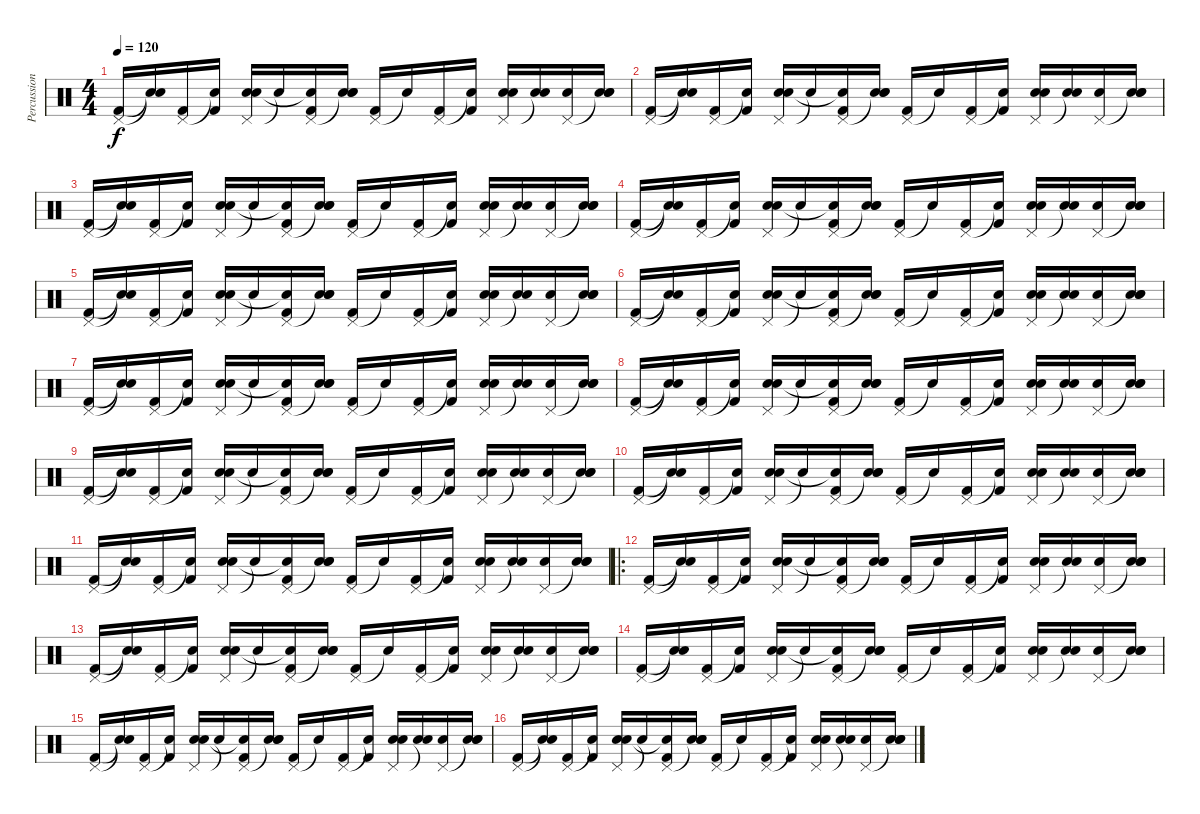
\track ("Percussions" "Percussion") {instrument percussion}
\staff {score}
\articulation defaults
\ts (4 4)
\tempo 120
\clef neutral
\ks c
("Pedal Hi-Hat (hit)" "Kick (hit) 2").16{dy f} ("Snare (hit)"{t} "Snare (hit)"{t}).16 ("Pedal Hi-Hat (hit)" "Kick (hit) 2").16 ("Snare (hit)"{t} "Kick (hit) 2").16 ("Pedal Hi-Hat (hit)" "Electric Snare (hit)" "Snare (hit) 2").16 "Snare (hit)"{t}.16 ("Pedal Hi-Hat (hit)" "Snare (hit)"{t} "Kick (hit) 2").16 ("Snare (hit)"{t} "Electric Snare (hit)" "Snare (hit) 2").16 ("Pedal Hi-Hat (hit)" "Kick (hit) 2").16 "Snare (hit)"{t}.16 ("Pedal Hi-Hat (hit)" "Kick (hit) 2").16 ("Snare (hit)"{t} "Kick (hit) 2").16 ("Pedal Hi-Hat (hit)" "Electric Snare (hit)" "Snare (hit) 2").16 ("Snare (hit)"{t} "Snare (hit) 2").16 ("Pedal Hi-Hat (hit)" "Snare (hit) 2").16 ("Snare (hit)"{t} "Electric Snare (hit)" "Snare (hit) 2").16 |
("Pedal Hi-Hat (hit)" "Kick (hit) 2").16 ("Snare (hit)"{t} "Snare (hit)"{t}).16 ("Pedal Hi-Hat (hit)" "Kick (hit) 2").16 ("Snare (hit)"{t} "Kick (hit) 2").16 ("Pedal Hi-Hat (hit)" "Electric Snare (hit)" "Snare (hit) 2").16 "Snare (hit)"{t}.16 ("Pedal Hi-Hat (hit)" "Snare (hit)"{t} "Kick (hit) 2").16 ("Snare (hit)"{t} "Electric Snare (hit)" "Snare (hit) 2").16 ("Pedal Hi-Hat (hit)" "Kick (hit) 2").16 "Snare (hit)"{t}.16 ("Pedal Hi-Hat (hit)" "Kick (hit) 2").16 ("Snare (hit)"{t} "Kick (hit) 2").16 ("Pedal Hi-Hat (hit)" "Electric Snare (hit)" "Snare (hit) 2").16 ("Snare (hit)"{t} "Snare (hit) 2").16 ("Pedal Hi-Hat (hit)" "Snare (hit) 2").16 ("Snare (hit)"{t} "Electric Snare (hit)" "Snare (hit) 2").16 |
("Pedal Hi-Hat (hit)" "Kick (hit) 2").16 ("Snare (hit)"{t} "Snare (hit)"{t}).16 ("Pedal Hi-Hat (hit)" "Kick (hit) 2").16 ("Snare (hit)"{t} "Kick (hit) 2").16 ("Pedal Hi-Hat (hit)" "Electric Snare (hit)" "Snare (hit) 2").16 "Snare (hit)"{t}.16 ("Pedal Hi-Hat (hit)" "Snare (hit)"{t} "Kick (hit) 2").16 ("Snare (hit)"{t} "Electric Snare (hit)" "Snare (hit) 2").16 ("Pedal Hi-Hat (hit)" "Kick (hit) 2").16 "Snare (hit)"{t}.16 ("Pedal Hi-Hat (hit)" "Kick (hit) 2").16 ("Snare (hit)"{t} "Kick (hit) 2").16 ("Pedal Hi-Hat (hit)" "Electric Snare (hit)" "Snare (hit) 2").16 ("Snare (hit)"{t} "Snare (hit) 2").16 ("Pedal Hi-Hat (hit)" "Snare (hit) 2").16 ("Snare (hit)"{t} "Electric Snare (hit)" "Snare (hit) 2").16 |
("Pedal Hi-Hat (hit)" "Kick (hit) 2").16 ("Snare (hit)"{t} "Snare (hit)"{t}).16 ("Pedal Hi-Hat (hit)" "Kick (hit) 2").16 ("Snare (hit)"{t} "Kick (hit) 2").16 ("Pedal Hi-Hat (hit)" "Electric Snare (hit)" "Snare (hit) 2").16 "Snare (hit)"{t}.16 ("Pedal Hi-Hat (hit)" "Snare (hit)"{t} "Kick (hit) 2").16 ("Snare (hit)"{t} "Electric Snare (hit)" "Snare (hit) 2").16 ("Pedal Hi-Hat (hit)" "Kick (hit) 2").16 "Snare (hit)"{t}.16 ("Pedal Hi-Hat (hit)" "Kick (hit) 2").16 ("Snare (hit)"{t} "Kick (hit) 2").16 ("Pedal Hi-Hat (hit)" "Electric Snare (hit)" "Snare (hit) 2").16 ("Snare (hit)"{t} "Snare (hit) 2").16 ("Pedal Hi-Hat (hit)" "Snare (hit) 2").16 ("Snare (hit)"{t} "Electric Snare (hit)" "Snare (hit) 2").16 |
("Pedal Hi-Hat (hit)" "Kick (hit) 2").16 ("Snare (hit)"{t} "Snare (hit)"{t}).16 ("Pedal Hi-Hat (hit)" "Kick (hit) 2").16 ("Snare (hit)"{t} "Kick (hit) 2").16 ("Pedal Hi-Hat (hit)" "Electric Snare (hit)" "Snare (hit) 2").16 "Snare (hit)"{t}.16 ("Pedal Hi-Hat (hit)" "Snare (hit)"{t} "Kick (hit) 2").16 ("Snare (hit)"{t} "Electric Snare (hit)" "Snare (hit) 2").16 ("Pedal Hi-Hat (hit)" "Kick (hit) 2").16 "Snare (hit)"{t}.16 ("Pedal Hi-Hat (hit)" "Kick (hit) 2").16 ("Snare (hit)"{t} "Kick (hit) 2").16 ("Pedal Hi-Hat (hit)" "Electric Snare (hit)" "Snare (hit) 2").16 ("Snare (hit)"{t} "Snare (hit) 2").16 ("Pedal Hi-Hat (hit)" "Snare (hit) 2").16 ("Snare (hit)"{t} "Electric Snare (hit)" "Snare (hit) 2").16 |
("Pedal Hi-Hat (hit)" "Kick (hit) 2").16 ("Snare (hit)"{t} "Snare (hit)"{t}).16 ("Pedal Hi-Hat (hit)" "Kick (hit) 2").16 ("Snare (hit)"{t} "Kick (hit) 2").16 ("Pedal Hi-Hat (hit)" "Electric Snare (hit)" "Snare (hit) 2").16 "Snare (hit)"{t}.16 ("Pedal Hi-Hat (hit)" "Snare (hit)"{t} "Kick (hit) 2").16 ("Snare (hit)"{t} "Electric Snare (hit)" "Snare (hit) 2").16 ("Pedal Hi-Hat (hit)" "Kick (hit) 2").16 "Snare (hit)"{t}.16 ("Pedal Hi-Hat (hit)" "Kick (hit) 2").16 ("Snare (hit)"{t} "Kick (hit) 2").16 ("Pedal Hi-Hat (hit)" "Electric Snare (hit)" "Snare (hit) 2").16 ("Snare (hit)"{t} "Snare (hit) 2").16 ("Pedal Hi-Hat (hit)" "Snare (hit) 2").16 ("Snare (hit)"{t} "Electric Snare (hit)" "Snare (hit) 2").16 |
("Pedal Hi-Hat (hit)" "Kick (hit) 2").16 ("Snare (hit)"{t} "Snare (hit)"{t}).16 ("Pedal Hi-Hat (hit)" "Kick (hit) 2").16 ("Snare (hit)"{t} "Kick (hit) 2").16 ("Pedal Hi-Hat (hit)" "Electric Snare (hit)" "Snare (hit) 2").16 "Snare (hit)"{t}.16 ("Pedal Hi-Hat (hit)" "Snare (hit)"{t} "Kick (hit) 2").16 ("Snare (hit)"{t} "Electric Snare (hit)" "Snare (hit) 2").16 ("Pedal Hi-Hat (hit)" "Kick (hit) 2").16 "Snare (hit)"{t}.16 ("Pedal Hi-Hat (hit)" "Kick (hit) 2").16 ("Snare (hit)"{t} "Kick (hit) 2").16 ("Pedal Hi-Hat (hit)" "Electric Snare (hit)" "Snare (hit) 2").16 ("Snare (hit)"{t} "Snare (hit) 2").16 ("Pedal Hi-Hat (hit)" "Snare (hit) 2").16 ("Snare (hit)"{t} "Electric Snare (hit)" "Snare (hit) 2").16 |
("Pedal Hi-Hat (hit)" "Kick (hit) 2").16 ("Snare (hit)"{t} "Snare (hit)"{t}).16 ("Pedal Hi-Hat (hit)" "Kick (hit) 2").16 ("Snare (hit)"{t} "Kick (hit) 2").16 ("Pedal Hi-Hat (hit)" "Electric Snare (hit)" "Snare (hit) 2").16 "Snare (hit)"{t}.16 ("Pedal Hi-Hat (hit)" "Snare (hit)"{t} "Kick (hit) 2").16 ("Snare (hit)"{t} "Electric Snare (hit)" "Snare (hit) 2").16 ("Pedal Hi-Hat (hit)" "Kick (hit) 2").16 "Snare (hit)"{t}.16 ("Pedal Hi-Hat (hit)" "Kick (hit) 2").16 ("Snare (hit)"{t} "Kick (hit) 2").16 ("Pedal Hi-Hat (hit)" "Electric Snare (hit)" "Snare (hit) 2").16 ("Snare (hit)"{t} "Snare (hit) 2").16 ("Pedal Hi-Hat (hit)" "Snare (hit) 2").16 ("Snare (hit)"{t} "Electric Snare (hit)" "Snare (hit) 2").16 |
("Pedal Hi-Hat (hit)" "Kick (hit) 2").16 ("Snare (hit)"{t} "Snare (hit)"{t}).16 ("Pedal Hi-Hat (hit)" "Kick (hit) 2").16 ("Snare (hit)"{t} "Kick (hit) 2").16 ("Pedal Hi-Hat (hit)" "Electric Snare (hit)" "Snare (hit) 2").16 "Snare (hit)"{t}.16 ("Pedal Hi-Hat (hit)" "Snare (hit)"{t} "Kick (hit) 2").16 ("Snare (hit)"{t} "Electric Snare (hit)" "Snare (hit) 2").16 ("Pedal Hi-Hat (hit)" "Kick (hit) 2").16 "Snare (hit)"{t}.16 ("Pedal Hi-Hat (hit)" "Kick (hit) 2").16 ("Snare (hit)"{t} "Kick (hit) 2").16 ("Pedal Hi-Hat (hit)" "Electric Snare (hit)" "Snare (hit) 2").16 ("Snare (hit)"{t} "Snare (hit) 2").16 ("Pedal Hi-Hat (hit)" "Snare (hit) 2").16 ("Snare (hit)"{t} "Electric Snare (hit)" "Snare (hit) 2").16 |
("Pedal Hi-Hat (hit)" "Kick (hit) 2").16 ("Snare (hit)"{t} "Snare (hit)"{t}).16 ("Pedal Hi-Hat (hit)" "Kick (hit) 2").16 ("Snare (hit)"{t} "Kick (hit) 2").16 ("Pedal Hi-Hat (hit)" "Electric Snare (hit)" "Snare (hit) 2").16 "Snare (hit)"{t}.16 ("Pedal Hi-Hat (hit)" "Snare (hit)"{t} "Kick (hit) 2").16 ("Snare (hit)"{t} "Electric Snare (hit)" "Snare (hit) 2").16 ("Pedal Hi-Hat (hit)" "Kick (hit) 2").16 "Snare (hit)"{t}.16 ("Pedal Hi-Hat (hit)" "Kick (hit) 2").16 ("Snare (hit)"{t} "Kick (hit) 2").16 ("Pedal Hi-Hat (hit)" "Electric Snare (hit)" "Snare (hit) 2").16 ("Snare (hit)"{t} "Snare (hit) 2").16 ("Pedal Hi-Hat (hit)" "Snare (hit) 2").16 ("Snare (hit)"{t} "Electric Snare (hit)" "Snare (hit) 2").16 |
("Pedal Hi-Hat (hit)" "Kick (hit) 2").16 ("Snare (hit)"{t} "Snare (hit)"{t}).16 ("Pedal Hi-Hat (hit)" "Kick (hit) 2").16 ("Snare (hit)"{t} "Kick (hit) 2").16 ("Pedal Hi-Hat (hit)" "Electric Snare (hit)" "Snare (hit) 2").16 "Snare (hit)"{t}.16 ("Pedal Hi-Hat (hit)" "Snare (hit)"{t} "Kick (hit) 2").16 ("Snare (hit)"{t} "Electric Snare (hit)" "Snare (hit) 2").16 ("Pedal Hi-Hat (hit)" "Kick (hit) 2").16 "Snare (hit)"{t}.16 ("Pedal Hi-Hat (hit)" "Kick (hit) 2").16 ("Snare (hit)"{t} "Kick (hit) 2").16 ("Pedal Hi-Hat (hit)" "Electric Snare (hit)" "Snare (hit) 2").16 ("Snare (hit)"{t} "Snare (hit) 2").16 ("Pedal Hi-Hat (hit)" "Snare (hit) 2").16 ("Snare (hit)"{t} "Electric Snare (hit)" "Snare (hit) 2").16 |
\ro
("Pedal Hi-Hat (hit)" "Kick (hit) 2").16 ("Snare (hit)"{t} "Snare (hit)"{t}).16 ("Pedal Hi-Hat (hit)" "Kick (hit) 2").16 ("Snare (hit)"{t} "Kick (hit) 2").16 ("Pedal Hi-Hat (hit)" "Electric Snare (hit)" "Snare (hit) 2").16 "Snare (hit)"{t}.16 ("Pedal Hi-Hat (hit)" "Snare (hit)"{t} "Kick (hit) 2").16 ("Snare (hit)"{t} "Electric Snare (hit)" "Snare (hit) 2").16 ("Pedal Hi-Hat (hit)" "Kick (hit) 2").16 "Snare (hit)"{t}.16 ("Pedal Hi-Hat (hit)" "Kick (hit) 2").16 ("Snare (hit)"{t} "Kick (hit) 2").16 ("Pedal Hi-Hat (hit)" "Electric Snare (hit)" "Snare (hit) 2").16 ("Snare (hit)"{t} "Snare (hit) 2").16 ("Pedal Hi-Hat (hit)" "Snare (hit) 2").16 ("Snare (hit)"{t} "Electric Snare (hit)" "Snare (hit) 2").16 |
("Pedal Hi-Hat (hit)" "Kick (hit) 2").16 ("Snare (hit)"{t} "Snare (hit)"{t}).16 ("Pedal Hi-Hat (hit)" "Kick (hit) 2").16 ("Snare (hit)"{t} "Kick (hit) 2").16 ("Pedal Hi-Hat (hit)" "Electric Snare (hit)" "Snare (hit) 2").16 "Snare (hit)"{t}.16 ("Pedal Hi-Hat (hit)" "Snare (hit)"{t} "Kick (hit) 2").16 ("Snare (hit)"{t} "Electric Snare (hit)" "Snare (hit) 2").16 ("Pedal Hi-Hat (hit)" "Kick (hit) 2").16 "Snare (hit)"{t}.16 ("Pedal Hi-Hat (hit)" "Kick (hit) 2").16 ("Snare (hit)"{t} "Kick (hit) 2").16 ("Pedal Hi-Hat (hit)" "Electric Snare (hit)" "Snare (hit) 2").16 ("Snare (hit)"{t} "Snare (hit) 2").16 ("Pedal Hi-Hat (hit)" "Snare (hit) 2").16 ("Snare (hit)"{t} "Electric Snare (hit)" "Snare (hit) 2").16 |
("Pedal Hi-Hat (hit)" "Kick (hit) 2").16 ("Snare (hit)"{t} "Snare (hit)"{t}).16 ("Pedal Hi-Hat (hit)" "Kick (hit) 2").16 ("Snare (hit)"{t} "Kick (hit) 2").16 ("Pedal Hi-Hat (hit)" "Electric Snare (hit)" "Snare (hit) 2").16 "Snare (hit)"{t}.16 ("Pedal Hi-Hat (hit)" "Snare (hit)"{t} "Kick (hit) 2").16 ("Snare (hit)"{t} "Electric Snare (hit)" "Snare (hit) 2").16 ("Pedal Hi-Hat (hit)" "Kick (hit) 2").16 "Snare (hit)"{t}.16 ("Pedal Hi-Hat (hit)" "Kick (hit) 2").16 ("Snare (hit)"{t} "Kick (hit) 2").16 ("Pedal Hi-Hat (hit)" "Electric Snare (hit)" "Snare (hit) 2").16 ("Snare (hit)"{t} "Snare (hit) 2").16 ("Pedal Hi-Hat (hit)" "Snare (hit) 2").16 ("Snare (hit)"{t} "Electric Snare (hit)" "Snare (hit) 2").16 |
("Pedal Hi-Hat (hit)" "Kick (hit) 2").16 ("Snare (hit)"{t} "Snare (hit)"{t}).16 ("Pedal Hi-Hat (hit)" "Kick (hit) 2").16 ("Snare (hit)"{t} "Kick (hit) 2").16 ("Pedal Hi-Hat (hit)" "Electric Snare (hit)" "Snare (hit) 2").16 "Snare (hit)"{t}.16 ("Pedal Hi-Hat (hit)" "Snare (hit)"{t} "Kick (hit) 2").16 ("Snare (hit)"{t} "Electric Snare (hit)" "Snare (hit) 2").16 ("Pedal Hi-Hat (hit)" "Kick (hit) 2").16 "Snare (hit)"{t}.16 ("Pedal Hi-Hat (hit)" "Kick (hit) 2").16 ("Snare (hit)"{t} "Kick (hit) 2").16 ("Pedal Hi-Hat (hit)" "Electric Snare (hit)" "Snare (hit) 2").16 ("Snare (hit)"{t} "Snare (hit) 2").16 ("Pedal Hi-Hat (hit)" "Snare (hit) 2").16 ("Snare (hit)"{t} "Electric Snare (hit)" "Snare (hit) 2").16 |
("Pedal Hi-Hat (hit)" "Kick (hit) 2").16 ("Snare (hit)"{t} "Snare (hit)"{t}).16 ("Pedal Hi-Hat (hit)" "Kick (hit) 2").16 ("Snare (hit)"{t} "Kick (hit) 2").16 ("Pedal Hi-Hat (hit)" "Electric Snare (hit)" "Snare (hit) 2").16 "Snare (hit)"{t}.16 ("Pedal Hi-Hat (hit)" "Snare (hit)"{t} "Kick (hit) 2").16 ("Snare (hit)"{t} "Electric Snare (hit)" "Snare (hit) 2").16 ("Pedal Hi-Hat (hit)" "Kick (hit) 2").16 "Snare (hit)"{t}.16 ("Pedal Hi-Hat (hit)" "Kick (hit) 2").16 ("Snare (hit)"{t} "Kick (hit) 2").16 ("Pedal Hi-Hat (hit)" "Electric Snare (hit)" "Snare (hit) 2").16 ("Snare (hit)"{t} "Snare (hit) 2").16 ("Pedal Hi-Hat (hit)" "Snare (hit) 2").16 ("Snare (hit)"{t} "Electric Snare (hit)" "Snare (hit) 2").16
